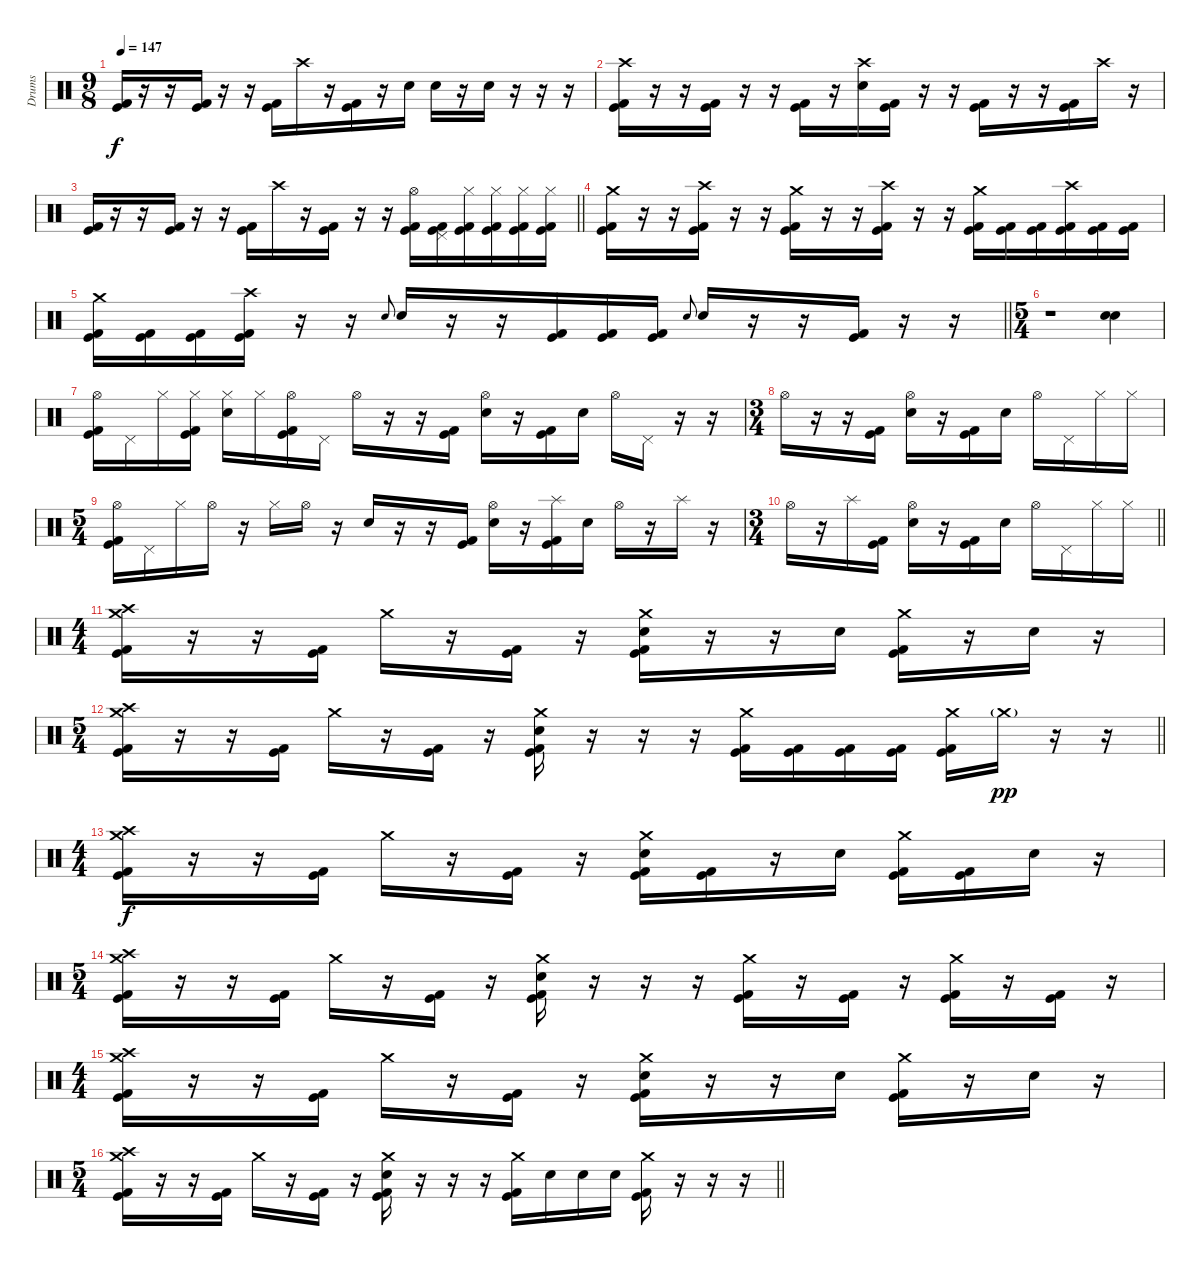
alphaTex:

\track ("Drums" "Drums") {instrument percussion}
\staff {score}
\articulation defaults
\ts (9 8)
\tempo 147
\clef neutral
\ks c
("Kick (hit)" "Kick (hit) 2").16{dy f} r.16 r.16 ("Kick (hit)" "Kick (hit) 2").16 r.16 r.16 ("Kick (hit)" "Kick (hit) 2").16 "Crash high (hit)".16 r.16 ("Kick (hit)" "Kick (hit) 2").16 r.16 "Electric Snare (hit)".16 "Electric Snare (hit)".16 r.16 "Electric Snare (hit)".16 r.16 r.16 r.16 |
("Crash high (hit)" "Kick (hit)" "Kick (hit) 2").16 r.16 r.16 ("Kick (hit)" "Kick (hit) 2").16 r.16 r.16 ("Kick (hit)" "Kick (hit) 2").16 r.16 ("Crash high (hit)" "Electric Snare (hit)").16 ("Kick (hit)" "Kick (hit) 2").16 r.16 r.16 ("Kick (hit)" "Kick (hit) 2").16 r.16 r.16 ("Kick (hit)" "Kick (hit) 2").16 "Crash high (hit)".16 r.16 |
\barLineRight lightlight
("Kick (hit)" "Kick (hit) 2").16 r.16 r.16 ("Kick (hit)" "Kick (hit) 2").16 r.16 r.16 ("Kick (hit)" "Kick (hit) 2").16 "Crash high (hit)".16 r.16 ("Kick (hit)" "Kick (hit) 2").16 r.16 r.16 ("Hi-Hat (open)" "Kick (hit)" "Kick (hit) 2").16 ("Pedal Hi-Hat (hit)" "Kick (hit)" "Kick (hit) 2").16 ("Hi-Hat (closed)" "Kick (hit)" "Kick (hit) 2").16 ("Hi-Hat (closed)" "Kick (hit)" "Kick (hit) 2").16 ("Hi-Hat (closed)" "Kick (hit)" "Kick (hit) 2").16 ("Hi-Hat (closed)" "Kick (hit)" "Kick (hit) 2").16 |
("Crash medium (hit)" "Kick (hit)" "Kick (hit) 2").16 r.16 r.16 ("Crash high (hit)" "Kick (hit)" "Kick (hit) 2").16 r.16 r.16 ("Crash medium (hit)" "Kick (hit)" "Kick (hit) 2").16 r.16 r.16 ("Crash high (hit)" "Kick (hit)" "Kick (hit) 2").16 r.16 r.16 ("Crash medium (hit)" "Kick (hit)" "Kick (hit) 2").16 ("Kick (hit)" "Kick (hit) 2").16 ("Kick (hit)" "Kick (hit) 2").16 ("Crash high (hit)" "Kick (hit)" "Kick (hit) 2").16 ("Kick (hit)" "Kick (hit) 2").16 ("Kick (hit)" "Kick (hit) 2").16 |
\barLineRight lightlight
("Crash medium (hit)" "Kick (hit)" "Kick (hit) 2").16 ("Kick (hit)" "Kick (hit) 2").16 ("Kick (hit)" "Kick (hit) 2").16 ("Crash high (hit)" "Kick (hit)" "Kick (hit) 2").16 r.16 r.16 "Electric Snare (hit)".8{gr onbeat} "Electric Snare (hit)".16 r.16 r.16 ("Kick (hit)" "Kick (hit) 2").16 ("Kick (hit)" "Kick (hit) 2").16 ("Kick (hit)" "Kick (hit) 2").16 "Electric Snare (hit)".8{gr onbeat} "Electric Snare (hit)".16 r.16 r.16 ("Kick (hit)" "Kick (hit) 2").16 r.16 r.16 |
\ts (5 4)
r.1 ("Electric Snare (hit)" "Electric Snare (hit)").4 |
("Hi-Hat (open)" "Kick (hit)" "Kick (hit) 2").16 "Pedal Hi-Hat (hit)".16 "Hi-Hat (closed)".16 ("Hi-Hat (closed)" "Kick (hit)" "Kick (hit) 2").16 ("Hi-Hat (closed)" "Electric Snare (hit)").16 "Hi-Hat (closed)".16 ("Hi-Hat (open)" "Kick (hit)" "Kick (hit) 2").16 "Pedal Hi-Hat (hit)".16 "Hi-Hat (open)".16 r.16 r.16 ("Kick (hit)" "Kick (hit) 2").16 ("Hi-Hat (open)" "Electric Snare (hit)").16 r.16 ("Kick (hit)" "Kick (hit) 2").16 "Electric Snare (hit)".16 "Hi-Hat (open)".16 "Pedal Hi-Hat (hit)".16 r.16 r.16 |
\ts (3 4)
"Hi-Hat (open)".16 r.16 r.16 ("Kick (hit)" "Kick (hit) 2").16 ("Hi-Hat (open)" "Electric Snare (hit)").16 r.16 ("Kick (hit)" "Kick (hit) 2").16 "Electric Snare (hit)".16 "Hi-Hat (open)".16 "Pedal Hi-Hat (hit)".16 "Hi-Hat (closed)".16 "Hi-Hat (closed)".16 |
\ts (5 4)
("Hi-Hat (open)" "Kick (hit)" "Kick (hit) 2").16 "Pedal Hi-Hat (hit)".16 "Hi-Hat (closed)".16 "Hi-Hat (open)".16 r.16 "Hi-Hat (closed)".16 "Hi-Hat (open)".16 r.16 "Electric Snare (hit)".16 r.16 r.16 ("Kick (hit)" "Kick (hit) 2").16 ("Hi-Hat (open)" "Electric Snare (hit)").16 r.16 ("Splash (hit)" "Kick (hit)" "Kick (hit) 2").16 "Electric Snare (hit)".16 "Hi-Hat (open)".16 r.16 "Splash (hit)".16 r.16 |
\ts (3 4)
\barLineRight lightlight "Hi-Hat (open)".16
r.16 "Splash (hit)".16 ("Kick (hit)" "Kick (hit) 2").16 ("Hi-Hat (open)" "Electric Snare (hit)").16 r.16 ("Kick (hit)" "Kick (hit) 2").16 "Electric Snare (hit)".16 "Hi-Hat (open)".16 "Pedal Hi-Hat (hit)".16 "Hi-Hat (closed)".16 "Hi-Hat (closed)".16 |
\ts (4 4)
("Crash high (hit)" "Crash medium (hit)" "Kick (hit)" "Kick (hit) 2").16 r.16 r.16 ("Kick (hit)" "Kick (hit) 2").16 "Crash medium (hit)".16 r.16 ("Kick (hit)" "Kick (hit) 2").16 r.16 ("Crash medium (hit)" "Electric Snare (hit)" "Kick (hit)" "Kick (hit) 2").16 r.16 r.16 "Electric Snare (hit)".16 ("Crash medium (hit)" "Kick (hit)" "Kick (hit) 2").16 r.16 "Electric Snare (hit)".16 r.16 |
\ts (5 4)
\barLineRight lightlight
("Crash high (hit)" "Crash medium (hit)" "Kick (hit)" "Kick (hit) 2").16 r.16 r.16 ("Kick (hit)" "Kick (hit) 2").16 "Crash medium (hit)".16 r.16 ("Kick (hit)" "Kick (hit) 2").16 r.16 ("Crash medium (hit)" "Electric Snare (hit)" "Kick (hit)" "Kick (hit) 2").16 r.16 r.16 r.16 ("Crash medium (hit)" "Kick (hit)" "Kick (hit) 2").16 ("Kick (hit)" "Kick (hit) 2").16 ("Kick (hit)" "Kick (hit) 2").16 ("Kick (hit)" "Kick (hit) 2").16 ("Crash medium (hit)" "Kick (hit)" "Kick (hit) 2").16 "Crash medium (hit)"{g}.16{dy pp} r.16 r.16 |
\ts (4 4)
("Crash high (hit)" "Crash medium (hit)" "Kick (hit)" "Kick (hit) 2").16{dy f} r.16 r.16 ("Kick (hit)" "Kick (hit) 2").16 "Crash medium (hit)".16 r.16 ("Kick (hit)" "Kick (hit) 2").16 r.16 ("Crash medium (hit)" "Electric Snare (hit)" "Kick (hit)" "Kick (hit) 2").16 ("Kick (hit)" "Kick (hit) 2").16 r.16 "Electric Snare (hit)".16 ("Crash medium (hit)" "Kick (hit)" "Kick (hit) 2").16 ("Kick (hit)" "Kick (hit) 2").16 "Electric Snare (hit)".16 r.16 |
\ts (5 4)
("Crash high (hit)" "Crash medium (hit)" "Kick (hit)" "Kick (hit) 2").16 r.16 r.16 ("Kick (hit)" "Kick (hit) 2").16 "Crash medium (hit)".16 r.16 ("Kick (hit)" "Kick (hit) 2").16 r.16 ("Crash medium (hit)" "Electric Snare (hit)" "Kick (hit)" "Kick (hit) 2").16 r.16 r.16 r.16 ("Crash medium (hit)" "Kick (hit)" "Kick (hit) 2").16 r.16 ("Kick (hit)" "Kick (hit) 2").16 r.16 ("Crash medium (hit)" "Kick (hit)" "Kick (hit) 2").16 r.16 ("Kick (hit)" "Kick (hit) 2").16 r.16 |
\ts (4 4)
("Crash high (hit)" "Crash medium (hit)" "Kick (hit)" "Kick (hit) 2").16 r.16 r.16 ("Kick (hit)" "Kick (hit) 2").16 "Crash medium (hit)".16 r.16 ("Kick (hit)" "Kick (hit) 2").16 r.16 ("Crash medium (hit)" "Electric Snare (hit)" "Kick (hit)" "Kick (hit) 2").16 r.16 r.16 "Electric Snare (hit)".16 ("Crash medium (hit)" "Kick (hit)" "Kick (hit) 2").16 r.16 "Electric Snare (hit)".16 r.16 |
\ts (5 4)
\barLineRight lightlight
("Crash high (hit)" "Crash medium (hit)" "Kick (hit)" "Kick (hit) 2").16 r.16 r.16 ("Kick (hit)" "Kick (hit) 2").16 "Crash medium (hit)".16 r.16 ("Kick (hit)" "Kick (hit) 2").16 r.16 ("Crash medium (hit)" "Electric Snare (hit)" "Kick (hit)" "Kick (hit) 2").16 r.16 r.16 r.16 ("Crash medium (hit)" "Kick (hit)" "Kick (hit) 2").16 "Electric Snare (hit)".16 "Electric Snare (hit)".16 "Electric Snare (hit)".16 ("Crash medium (hit)" "Kick (hit)" "Kick (hit) 2").16 r.16 r.16 r.16
